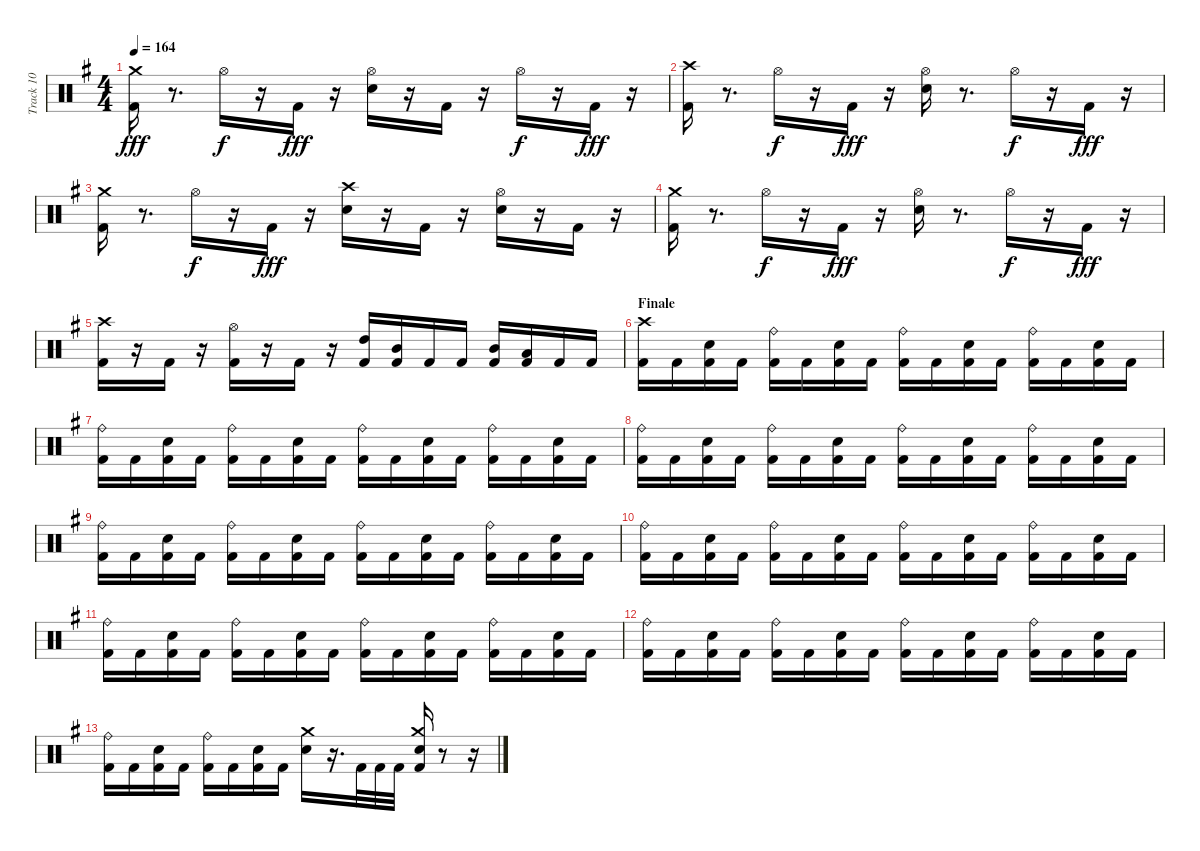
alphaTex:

\track ("Track 10" "Track 10") {instrument percussion}
\staff {score}
\articulation defaults
\ts (4 4)
\tempo 164
\clef neutral
\ks eminor
("Kick (hit) 2" "Crash medium (hit)").16{dy fff} r.8{d} "Hi-Hat (open)".16{dy f} r.16 "Kick (hit) 2".16{dy fff} r.16 ("Electric Snare (hit)" "Hi-Hat (open)").16 r.16 "Kick (hit) 2".16 r.16 "Hi-Hat (open)".16{dy f} r.16 "Kick (hit) 2".16{dy fff} r.16 |
("Kick (hit) 2" "Crash high (hit)").16 r.8{d} "Hi-Hat (open)".16{dy f} r.16 "Kick (hit) 2".16{dy fff} r.16 ("Electric Snare (hit)" "Hi-Hat (open)").16 r.8{d} "Hi-Hat (open)".16{dy f} r.16 "Kick (hit) 2".16{dy fff} r.16 |
("Kick (hit) 2" "Crash medium (hit)").16 r.8{d} "Hi-Hat (open)".16{dy f} r.16 "Kick (hit) 2".16{dy fff} r.16 ("Electric Snare (hit)" "Crash high (hit)").16 r.16 "Kick (hit) 2".16 r.16 ("Electric Snare (hit)" "Hi-Hat (open)").16 r.16 "Kick (hit) 2".16 r.16 |
("Kick (hit) 2" "Crash medium (hit)").16 r.8{d} "Hi-Hat (open)".16{dy f} r.16 "Kick (hit) 2".16{dy fff} r.16 ("Electric Snare (hit)" "Hi-Hat (open)").16 r.8{d} "Hi-Hat (open)".16{dy f} r.16 "Kick (hit) 2".16{dy fff} r.16 |
("Kick (hit) 2" "Crash high (hit)").16 r.16 "Kick (hit) 2".16 r.16 ("Kick (hit) 2" "Hi-Hat (open)").16 r.16 "Kick (hit) 2".16 r.16 ("Kick (hit) 2" "High Tom (hit)").16 ("Kick (hit) 2" "Mid Tom (hit)").16 "Kick (hit) 2".16 "Kick (hit) 2".16 ("Kick (hit) 2" "Mid Tom (hit)").16 ("Kick (hit) 2" "Low Tom (hit)").16 "Kick (hit) 2".16 "Kick (hit) 2".16 |
\section ("" "Finale")
("Kick (hit) 2" "Crash high (hit)").16 "Kick (hit) 2".16 ("Kick (hit) 2" "Electric Snare (hit)").16 "Kick (hit) 2".16 ("Kick (hit) 2" "Ride (bell)").16 "Kick (hit) 2".16 ("Kick (hit) 2" "Electric Snare (hit)").16 "Kick (hit) 2".16 ("Kick (hit) 2" "Ride (bell)").16 "Kick (hit) 2".16 ("Electric Snare (hit)" "Kick (hit) 2").16 "Kick (hit) 2".16 ("Kick (hit) 2" "Ride (bell)").16 "Kick (hit) 2".16 ("Kick (hit) 2" "Electric Snare (hit)").16 "Kick (hit) 2".16 |
("Kick (hit) 2" "Ride (bell)").16 "Kick (hit) 2".16 ("Kick (hit) 2" "Electric Snare (hit)").16 "Kick (hit) 2".16 ("Kick (hit) 2" "Ride (bell)").16 "Kick (hit) 2".16 ("Electric Snare (hit)" "Kick (hit) 2").16 "Kick (hit) 2".16 ("Kick (hit) 2" "Ride (bell)").16 "Kick (hit) 2".16 ("Electric Snare (hit)" "Kick (hit) 2").16 "Kick (hit) 2".16 ("Kick (hit) 2" "Ride (bell)").16 "Kick (hit) 2".16 ("Electric Snare (hit)" "Kick (hit) 2").16 "Kick (hit) 2".16 |
("Kick (hit) 2" "Ride (bell)").16 "Kick (hit) 2".16 ("Kick (hit) 2" "Electric Snare (hit)").16 "Kick (hit) 2".16 ("Kick (hit) 2" "Ride (bell)").16 "Kick (hit) 2".16 ("Electric Snare (hit)" "Kick (hit) 2").16 "Kick (hit) 2".16 ("Kick (hit) 2" "Ride (bell)").16 "Kick (hit) 2".16 ("Kick (hit) 2" "Electric Snare (hit)").16 "Kick (hit) 2".16 ("Kick (hit) 2" "Ride (bell)").16 "Kick (hit) 2".16 ("Electric Snare (hit)" "Kick (hit) 2").16 "Kick (hit) 2".16 |
("Kick (hit) 2" "Ride (bell)").16 "Kick (hit) 2".16 ("Kick (hit) 2" "Electric Snare (hit)").16 "Kick (hit) 2".16 ("Kick (hit) 2" "Ride (bell)").16 "Kick (hit) 2".16 ("Kick (hit) 2" "Electric Snare (hit)").16 "Kick (hit) 2".16 ("Kick (hit) 2" "Ride (bell)").16 "Kick (hit) 2".16 ("Electric Snare (hit)" "Kick (hit) 2").16 "Kick (hit) 2".16 ("Kick (hit) 2" "Ride (bell)").16 "Kick (hit) 2".16 ("Kick (hit) 2" "Electric Snare (hit)").16 "Kick (hit) 2".16 |
("Kick (hit) 2" "Ride (bell)").16 "Kick (hit) 2".16 ("Electric Snare (hit)" "Kick (hit) 2").16 "Kick (hit) 2".16 ("Kick (hit) 2" "Ride (bell)").16 "Kick (hit) 2".16 ("Electric Snare (hit)" "Kick (hit) 2").16 "Kick (hit) 2".16 ("Kick (hit) 2" "Ride (bell)").16 "Kick (hit) 2".16 ("Electric Snare (hit)" "Kick (hit) 2").16 "Kick (hit) 2".16 ("Kick (hit) 2" "Ride (bell)").16 "Kick (hit) 2".16 ("Kick (hit) 2" "Electric Snare (hit)").16 "Kick (hit) 2".16 |
("Kick (hit) 2" "Ride (bell)").16 "Kick (hit) 2".16 ("Electric Snare (hit)" "Kick (hit) 2").16 "Kick (hit) 2".16 ("Kick (hit) 2" "Ride (bell)").16 "Kick (hit) 2".16 ("Kick (hit) 2" "Electric Snare (hit)").16 "Kick (hit) 2".16 ("Kick (hit) 2" "Ride (bell)").16 "Kick (hit) 2".16 ("Electric Snare (hit)" "Kick (hit) 2").16 "Kick (hit) 2".16 ("Kick (hit) 2" "Ride (bell)").16 "Kick (hit) 2".16 ("Electric Snare (hit)" "Kick (hit) 2").16 "Kick (hit) 2".16 |
("Kick (hit) 2" "Ride (bell)").16 "Kick (hit) 2".16 ("Electric Snare (hit)" "Kick (hit) 2").16 "Kick (hit) 2".16 ("Kick (hit) 2" "Ride (bell)").16 "Kick (hit) 2".16 ("Kick (hit) 2" "Electric Snare (hit)").16 "Kick (hit) 2".16 ("Kick (hit) 2" "Ride (bell)").16 "Kick (hit) 2".16 ("Kick (hit) 2" "Electric Snare (hit)").16 "Kick (hit) 2".16 ("Kick (hit) 2" "Ride (bell)").16 "Kick (hit) 2".16 ("Electric Snare (hit)" "Kick (hit) 2").16 "Kick (hit) 2".16 |
("Kick (hit) 2" "Ride (bell)").16 "Kick (hit) 2".16 ("Kick (hit) 2" "Electric Snare (hit)").16 "Kick (hit) 2".16 ("Kick (hit) 2" "Ride (bell)").16 "Kick (hit) 2".16 ("Electric Snare (hit)" "Kick (hit) 2").16 "Kick (hit) 2".16 ("Electric Snare (hit)" "Crash medium (hit)").16 r.16{d} "Kick (hit) 2".32 "Kick (hit) 2".32 "Kick (hit) 2".32 ("Electric Snare (hit)" "Kick (hit) 2" "Crash medium (hit)").16 r.8 r.16
